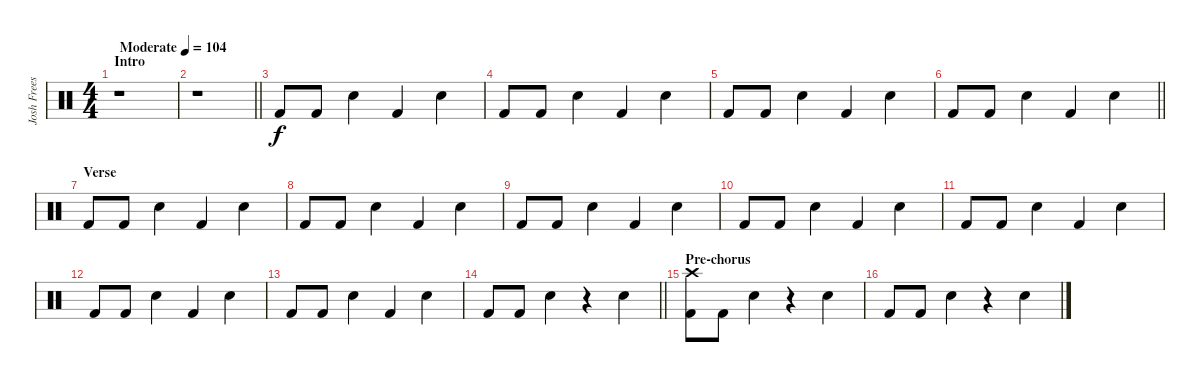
\track ("Josh Freese (Studio Drummer)" "Josh Frees") {instrument percussion}
\staff {score}
\articulation defaults
\ts (4 4)
\section ("" "Intro")
\tempo (104 "Moderate")
\clef neutral
\ks c
r.1{dy f} |
\barLineRight lightlight
r.1 |
"Kick (hit) 2".8 "Kick (hit) 2".8 "Electric Snare (hit)".4 "Kick (hit) 2".4 "Electric Snare (hit)".4 |
"Kick (hit) 2".8 "Kick (hit) 2".8 "Electric Snare (hit)".4 "Kick (hit) 2".4 "Electric Snare (hit)".4 |
"Kick (hit) 2".8 "Kick (hit) 2".8 "Electric Snare (hit)".4 "Kick (hit) 2".4 "Electric Snare (hit)".4 |
\barLineRight lightlight "Kick (hit) 2".8 "Kick (hit) 2".8 "Electric Snare (hit)".4 "Kick (hit) 2".4 "Electric Snare (hit)".4
|
\section ("" "Verse")
"Kick (hit) 2".8 "Kick (hit) 2".8 "Electric Snare (hit)".4 "Kick (hit) 2".4 "Electric Snare (hit)".4 |
"Kick (hit) 2".8 "Kick (hit) 2".8 "Electric Snare (hit)".4 "Kick (hit) 2".4 "Electric Snare (hit)".4 |
"Kick (hit) 2".8 "Kick (hit) 2".8 "Electric Snare (hit)".4 "Kick (hit) 2".4 "Electric Snare (hit)".4 |
"Kick (hit) 2".8 "Kick (hit) 2".8 "Electric Snare (hit)".4 "Kick (hit) 2".4 "Electric Snare (hit)".4 |
"Kick (hit) 2".8 "Kick (hit) 2".8 "Electric Snare (hit)".4 "Kick (hit) 2".4 "Electric Snare (hit)".4 |
"Kick (hit) 2".8 "Kick (hit) 2".8 "Electric Snare (hit)".4 "Kick (hit) 2".4 "Electric Snare (hit)".4 |
"Kick (hit) 2".8 "Kick (hit) 2".8 "Electric Snare (hit)".4 "Kick (hit) 2".4 "Electric Snare (hit)".4 |
\barLineRight lightlight "Kick (hit) 2".8 "Kick (hit) 2".8 "Electric Snare (hit)".4
r.4 "Electric Snare (hit)".4 |
\section ("" "Pre-chorus")
("Crash high (hit)" "Kick (hit) 2").8 "Kick (hit) 2".8 "Electric Snare (hit)".4 r.4 "Electric Snare (hit)".4 |
"Kick (hit) 2".8 "Kick (hit) 2".8 "Electric Snare (hit)".4 r.4 "Electric Snare (hit)".4
